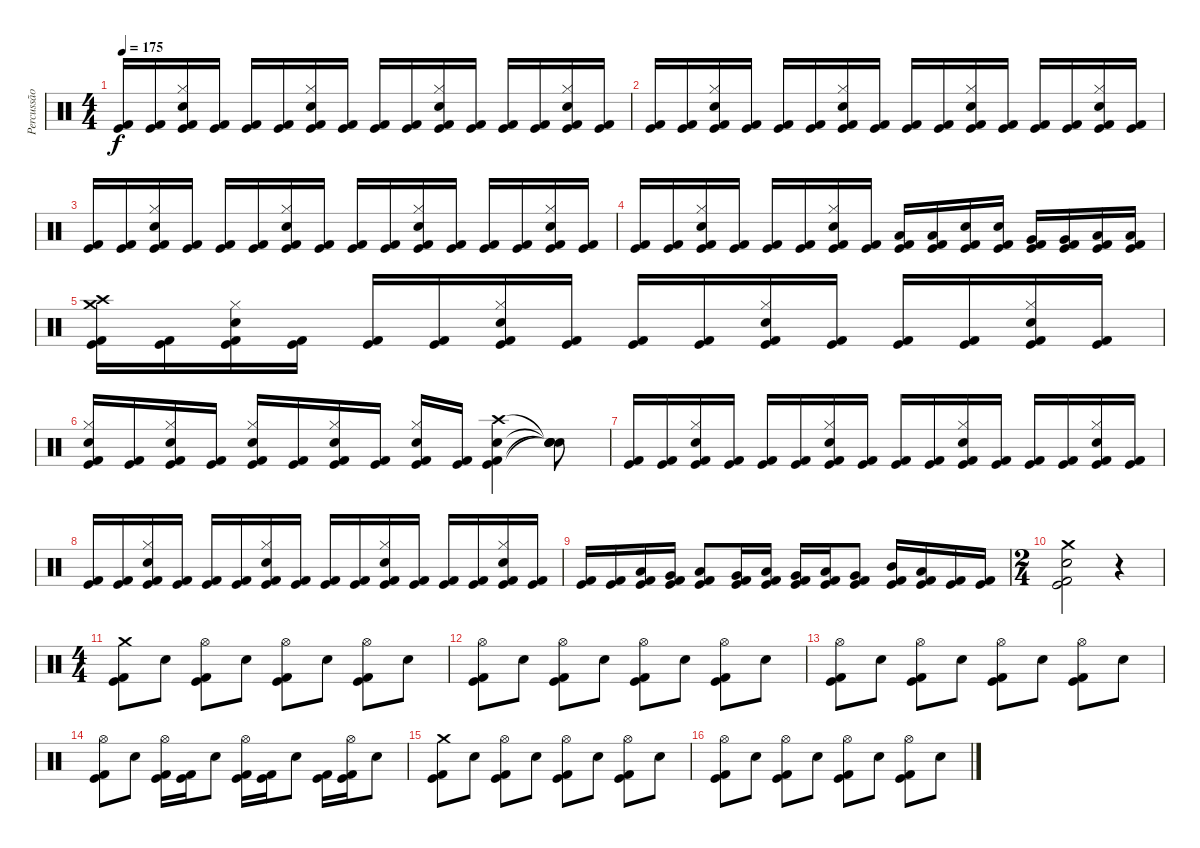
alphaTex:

\track ("Percussão" "Percussão") {instrument percussion}
\staff {score}
\articulation defaults
\ts (4 4)
\tempo 175
\clef neutral
\ks c
("Kick (hit)" "Kick (hit) 2").16{dy f} ("Kick (hit)" "Kick (hit) 2").16 ("Hi-Hat (closed)" "Electric Snare (hit)" "Kick (hit)" "Kick (hit) 2").16 ("Kick (hit)" "Kick (hit) 2").16 ("Kick (hit)" "Kick (hit) 2").16 ("Kick (hit)" "Kick (hit) 2").16 ("Hi-Hat (closed)" "Electric Snare (hit)" "Kick (hit)" "Kick (hit) 2").16 ("Kick (hit)" "Kick (hit) 2").16 ("Kick (hit)" "Kick (hit) 2").16 ("Kick (hit)" "Kick (hit) 2").16 ("Hi-Hat (closed)" "Electric Snare (hit)" "Kick (hit)" "Kick (hit) 2").16 ("Kick (hit)" "Kick (hit) 2").16 ("Kick (hit)" "Kick (hit) 2").16 ("Kick (hit)" "Kick (hit) 2").16 ("Hi-Hat (closed)" "Electric Snare (hit)" "Kick (hit)" "Kick (hit) 2").16 ("Kick (hit)" "Kick (hit) 2").16 |
("Kick (hit)" "Kick (hit) 2").16 ("Kick (hit)" "Kick (hit) 2").16 ("Hi-Hat (closed)" "Electric Snare (hit)" "Kick (hit)" "Kick (hit) 2").16 ("Kick (hit)" "Kick (hit) 2").16 ("Kick (hit)" "Kick (hit) 2").16 ("Kick (hit)" "Kick (hit) 2").16 ("Hi-Hat (closed)" "Electric Snare (hit)" "Kick (hit)" "Kick (hit) 2").16 ("Kick (hit)" "Kick (hit) 2").16 ("Kick (hit)" "Kick (hit) 2").16 ("Kick (hit)" "Kick (hit) 2").16 ("Hi-Hat (closed)" "Electric Snare (hit)" "Kick (hit)" "Kick (hit) 2").16 ("Kick (hit)" "Kick (hit) 2").16 ("Kick (hit)" "Kick (hit) 2").16 ("Kick (hit)" "Kick (hit) 2").16 ("Hi-Hat (closed)" "Electric Snare (hit)" "Kick (hit)" "Kick (hit) 2").16 ("Kick (hit)" "Kick (hit) 2").16 |
("Kick (hit)" "Kick (hit) 2").16 ("Kick (hit)" "Kick (hit) 2").16 ("Hi-Hat (closed)" "Electric Snare (hit)" "Kick (hit)" "Kick (hit) 2").16 ("Kick (hit)" "Kick (hit) 2").16 ("Kick (hit)" "Kick (hit) 2").16 ("Kick (hit)" "Kick (hit) 2").16 ("Hi-Hat (closed)" "Electric Snare (hit)" "Kick (hit)" "Kick (hit) 2").16 ("Kick (hit)" "Kick (hit) 2").16 ("Kick (hit)" "Kick (hit) 2").16 ("Kick (hit)" "Kick (hit) 2").16 ("Hi-Hat (closed)" "Electric Snare (hit)" "Kick (hit)" "Kick (hit) 2").16 ("Kick (hit)" "Kick (hit) 2").16 ("Kick (hit)" "Kick (hit) 2").16 ("Kick (hit)" "Kick (hit) 2").16 ("Hi-Hat (closed)" "Electric Snare (hit)" "Kick (hit)" "Kick (hit) 2").16 ("Kick (hit)" "Kick (hit) 2").16 |
("Kick (hit)" "Kick (hit) 2").16 ("Kick (hit)" "Kick (hit) 2").16 ("Hi-Hat (closed)" "Electric Snare (hit)" "Kick (hit)" "Kick (hit) 2").16 ("Kick (hit)" "Kick (hit) 2").16 ("Kick (hit)" "Kick (hit) 2").16 ("Kick (hit)" "Kick (hit) 2").16 ("Hi-Hat (closed)" "Electric Snare (hit)" "Kick (hit)" "Kick (hit) 2").16 ("Kick (hit)" "Kick (hit) 2").16 ("Low Tom (hit)" "Kick (hit)" "Kick (hit) 2").16 ("Low Tom (hit)" "Kick (hit)" "Kick (hit) 2").16 ("Electric Snare (hit)" "Kick (hit)" "Kick (hit) 2").16 ("Electric Snare (hit)" "Kick (hit)" "Kick (hit) 2").16 ("Very Low Tom (hit)" "Kick (hit)" "Kick (hit) 2").16 ("Very Low Tom (hit)" "Kick (hit)" "Kick (hit) 2").16 ("Low Tom (hit)" "Kick (hit)" "Kick (hit) 2").16 ("Low Tom (hit)" "Kick (hit)" "Kick (hit) 2").16 |
("Crash high (hit)" "Crash medium (hit)" "Kick (hit)" "Kick (hit) 2").16 ("Kick (hit)" "Kick (hit) 2").16 ("Hi-Hat (closed)" "Electric Snare (hit)" "Kick (hit)" "Kick (hit) 2").16 ("Kick (hit)" "Kick (hit) 2").16 ("Kick (hit)" "Kick (hit) 2").16 ("Kick (hit)" "Kick (hit) 2").16 ("Hi-Hat (closed)" "Electric Snare (hit)" "Kick (hit)" "Kick (hit) 2").16 ("Kick (hit)" "Kick (hit) 2").16 ("Kick (hit)" "Kick (hit) 2").16 ("Kick (hit)" "Kick (hit) 2").16 ("Hi-Hat (closed)" "Electric Snare (hit)" "Kick (hit)" "Kick (hit) 2").16 ("Kick (hit)" "Kick (hit) 2").16 ("Kick (hit)" "Kick (hit) 2").16 ("Kick (hit)" "Kick (hit) 2").16 ("Hi-Hat (closed)" "Electric Snare (hit)" "Kick (hit)" "Kick (hit) 2").16 ("Kick (hit)" "Kick (hit) 2").16 |
("Electric Snare (hit)" "Hi-Hat (closed)" "Kick (hit)" "Kick (hit) 2").16 ("Kick (hit)" "Kick (hit) 2").16 ("Hi-Hat (closed)" "Electric Snare (hit)" "Kick (hit)" "Kick (hit) 2").16 ("Kick (hit)" "Kick (hit) 2").16 ("Electric Snare (hit)" "Hi-Hat (closed)" "Kick (hit)" "Kick (hit) 2").16 ("Kick (hit)" "Kick (hit) 2").16 ("Hi-Hat (closed)" "Electric Snare (hit)" "Kick (hit)" "Kick (hit) 2").16 ("Kick (hit)" "Kick (hit) 2").16 ("Electric Snare (hit)" "Hi-Hat (closed)" "Kick (hit)" "Kick (hit) 2").16 ("Kick (hit)" "Kick (hit) 2").16 ("Crash high (hit)" "Electric Snare (hit)" "Kick (hit)" "Kick (hit) 2").4 ("Snare (hit)"{t} "Snare (hit)"{t} "Snare (hit)"{t} "Snare (hit)"{t}).8 |
("Kick (hit)" "Kick (hit) 2").16 ("Kick (hit)" "Kick (hit) 2").16 ("Hi-Hat (closed)" "Electric Snare (hit)" "Kick (hit)" "Kick (hit) 2").16 ("Kick (hit)" "Kick (hit) 2").16 ("Kick (hit)" "Kick (hit) 2").16 ("Kick (hit)" "Kick (hit) 2").16 ("Hi-Hat (closed)" "Electric Snare (hit)" "Kick (hit)" "Kick (hit) 2").16 ("Kick (hit)" "Kick (hit) 2").16 ("Kick (hit)" "Kick (hit) 2").16 ("Kick (hit)" "Kick (hit) 2").16 ("Hi-Hat (closed)" "Electric Snare (hit)" "Kick (hit)" "Kick (hit) 2").16 ("Kick (hit)" "Kick (hit) 2").16 ("Kick (hit)" "Kick (hit) 2").16 ("Kick (hit)" "Kick (hit) 2").16 ("Hi-Hat (closed)" "Electric Snare (hit)" "Kick (hit)" "Kick (hit) 2").16 ("Kick (hit)" "Kick (hit) 2").16 |
("Kick (hit)" "Kick (hit) 2").16 ("Kick (hit)" "Kick (hit) 2").16 ("Hi-Hat (closed)" "Electric Snare (hit)" "Kick (hit)" "Kick (hit) 2").16 ("Kick (hit)" "Kick (hit) 2").16 ("Kick (hit)" "Kick (hit) 2").16 ("Kick (hit)" "Kick (hit) 2").16 ("Hi-Hat (closed)" "Electric Snare (hit)" "Kick (hit)" "Kick (hit) 2").16 ("Kick (hit)" "Kick (hit) 2").16 ("Kick (hit)" "Kick (hit) 2").16 ("Kick (hit)" "Kick (hit) 2").16 ("Hi-Hat (closed)" "Electric Snare (hit)" "Kick (hit)" "Kick (hit) 2").16 ("Kick (hit)" "Kick (hit) 2").16 ("Kick (hit)" "Kick (hit) 2").16 ("Kick (hit)" "Kick (hit) 2").16 ("Hi-Hat (closed)" "Electric Snare (hit)" "Kick (hit)" "Kick (hit) 2").16 ("Kick (hit)" "Kick (hit) 2").16 |
("Kick (hit) 2" "Kick (hit)").16 ("Kick (hit) 2" "Kick (hit)").16 ("Low Tom (hit)" "Kick (hit) 2" "Kick (hit)").16 ("Very Low Tom (hit)" "Kick (hit) 2" "Kick (hit)").16 ("Low Tom (hit)" "Kick (hit) 2" "Kick (hit)").8 ("Very Low Tom (hit)" "Kick (hit) 2" "Kick (hit)").16 ("Low Floor Tom (hit)" "Kick (hit) 2" "Kick (hit)").16 ("Very Low Tom (hit)" "Kick (hit) 2" "Kick (hit)").16 ("Low Tom (hit)" "Kick (hit) 2" "Kick (hit)").16 ("Very Low Tom (hit)" "Kick (hit) 2" "Kick (hit)").8 ("Mid Tom (hit)" "Kick (hit) 2" "Kick (hit)").16 ("Low Tom (hit)" "Kick (hit) 2" "Kick (hit)").16 ("Kick (hit) 2" "Kick (hit)").16 ("Kick (hit) 2" "Kick (hit)").16 |
\ts (2 4)
("Crash medium (hit)" "Electric Snare (hit)" "Kick (hit) 2" "Kick (hit)").2 r.4 |
\ts (4 4)
("Crash medium (hit)" "Kick (hit) 2" "Kick (hit)").8 "Electric Snare (hit)".8 ("Hi-Hat (open)" "Kick (hit) 2" "Kick (hit)").8 "Electric Snare (hit)".8 ("Hi-Hat (open)" "Kick (hit) 2" "Kick (hit)").8 "Electric Snare (hit)".8 ("Hi-Hat (open)" "Kick (hit) 2" "Kick (hit)").8 "Electric Snare (hit)".8 |
("Hi-Hat (open)" "Kick (hit) 2" "Kick (hit)").8 "Electric Snare (hit)".8 ("Hi-Hat (open)" "Kick (hit) 2" "Kick (hit)").8 "Electric Snare (hit)".8 ("Hi-Hat (open)" "Kick (hit) 2" "Kick (hit)").8 "Electric Snare (hit)".8 ("Hi-Hat (open)" "Kick (hit) 2" "Kick (hit)").8 "Electric Snare (hit)".8 |
("Hi-Hat (open)" "Kick (hit) 2" "Kick (hit)").8 "Electric Snare (hit)".8 ("Hi-Hat (open)" "Kick (hit) 2" "Kick (hit)").8 "Electric Snare (hit)".8 ("Hi-Hat (open)" "Kick (hit) 2" "Kick (hit)").8 "Electric Snare (hit)".8 ("Hi-Hat (open)" "Kick (hit) 2" "Kick (hit)").8 "Electric Snare (hit)".8 |
("Hi-Hat (open)" "Kick (hit) 2" "Kick (hit)").8 "Electric Snare (hit)".8 ("Hi-Hat (open)" "Kick (hit) 2" "Kick (hit)").16 ("Kick (hit) 2" "Kick (hit)").16 "Electric Snare (hit)".8 ("Hi-Hat (open)" "Kick (hit) 2" "Kick (hit)").16 ("Kick (hit)" "Kick (hit) 2").16 "Electric Snare (hit)".8 ("Kick (hit)" "Kick (hit) 2").16 ("Hi-Hat (open)" "Kick (hit) 2" "Kick (hit)").16 "Electric Snare (hit)".8 |
("Crash medium (hit)" "Kick (hit) 2" "Kick (hit)").8 "Electric Snare (hit)".8 ("Hi-Hat (open)" "Kick (hit) 2" "Kick (hit)").8 "Electric Snare (hit)".8 ("Hi-Hat (open)" "Kick (hit) 2" "Kick (hit)").8 "Electric Snare (hit)".8 ("Hi-Hat (open)" "Kick (hit) 2" "Kick (hit)").8 "Electric Snare (hit)".8 |
("Hi-Hat (open)" "Kick (hit) 2" "Kick (hit)").8 "Electric Snare (hit)".8 ("Hi-Hat (open)" "Kick (hit) 2" "Kick (hit)").8 "Electric Snare (hit)".8 ("Hi-Hat (open)" "Kick (hit) 2" "Kick (hit)").8 "Electric Snare (hit)".8 ("Hi-Hat (open)" "Kick (hit) 2" "Kick (hit)").8 "Electric Snare (hit)".8
